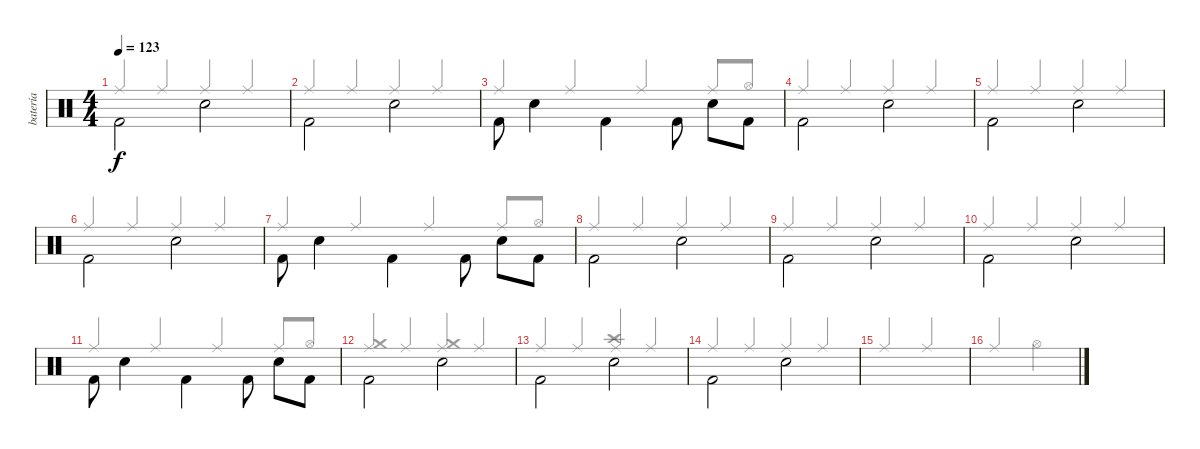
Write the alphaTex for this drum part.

\track ("batería" "batería") {instrument percussion}
\staff {score}
\articulation defaults
\voice
\ts (4 4)
\tempo 123
\clef neutral
\ks c "Kick (hit) 2".2{dy f beam Down} "Snare (hit) 2".2{beam Down}
|
"Kick (hit) 2".2{beam Down} "Snare (hit) 2".2{beam Down} |
"Kick (hit) 2".8{beam Down} "Snare (hit) 2".4{beam Down} "Kick (hit) 2".4{beam Down} "Kick (hit) 2".8{beam Down} "Snare (hit) 2".8{beam Down} "Kick (hit) 2".8{beam Down} |
"Kick (hit) 2".2{beam Down} "Snare (hit) 2".2{beam Down} |
"Kick (hit) 2".2{beam Down} "Snare (hit) 2".2{beam Down} |
"Kick (hit) 2".2{beam Down} "Snare (hit) 2".2{beam Down} |
"Kick (hit) 2".8{beam Down} "Snare (hit) 2".4{beam Down} "Kick (hit) 2".4{beam Down} "Kick (hit) 2".8{beam Down} "Snare (hit) 2".8{beam Down} "Kick (hit) 2".8{beam Down} |
"Kick (hit) 2".2{beam Down} "Snare (hit) 2".2{beam Down} |
"Kick (hit) 2".2{beam Down} "Snare (hit) 2".2{beam Down} |
"Kick (hit) 2".2{beam Down} "Snare (hit) 2".2{beam Down} |
"Kick (hit) 2".8{beam Down} "Snare (hit) 2".4{beam Down} "Kick (hit) 2".4{beam Down} "Kick (hit) 2".8{beam Down} "Snare (hit) 2".8{beam Down} "Kick (hit) 2".8{beam Down} |
"Kick (hit) 2".2{beam Down} "Snare (hit) 2".2{beam Down} |
"Kick (hit) 2".2{beam Down} "Snare (hit) 2".2{beam Down} |
"Kick (hit) 2".2{beam Down} "Snare (hit) 2".2{beam Down} |
|
\voice
\clef neutral
\ottava regular
\simile none
\ks c "Ride (middle)".4{dy f beam Up} "Ride (middle)".4{beam Up} "Ride (middle)".4{beam Up} "Ride (middle)".4{beam Up}
|
"Ride (middle)".4{beam Up} "Ride (middle)".4{beam Up} "Ride (middle)".4{beam Up} "Ride (middle)".4{beam Up} |
"Ride (middle)".4{beam Up} "Ride (middle)".4{beam Up} "Ride (middle)".4{beam Up} "Ride (middle)".8{beam Up} "Hi-Hat (open)".8{beam Up} |
"Ride (middle)".4{beam Up} "Ride (middle)".4{beam Up} "Ride (middle)".4{beam Up} "Ride (middle)".4{beam Up} |
"Ride (middle)".4{beam Up} "Ride (middle)".4{beam Up} "Ride (middle)".4{beam Up} "Ride (middle)".4{beam Up} |
"Ride (middle)".4{beam Up} "Ride (middle)".4{beam Up} "Ride (middle)".4{beam Up} "Ride (middle)".4{beam Up} |
"Ride (middle)".4{beam Up} "Ride (middle)".4{beam Up} "Ride (middle)".4{beam Up} "Ride (middle)".8{beam Up} "Hi-Hat (open)".8{beam Up} |
"Ride (middle)".4{beam Up} "Ride (middle)".4{beam Up} "Ride (middle)".4{beam Up} "Ride (middle)".4{beam Up} |
"Ride (middle)".4{beam Up} "Ride (middle)".4{beam Up} "Ride (middle)".4{beam Up} "Ride (middle)".4{beam Up} |
"Ride (middle)".4{beam Up} "Ride (middle)".4{beam Up} "Ride (middle)".4{beam Up} "Ride (middle)".4{beam Up} |
"Ride (middle)".4{beam Up} "Ride (middle)".4{beam Up} "Ride (middle)".4{beam Up} "Ride (middle)".8{beam Up} "Hi-Hat (open)".8{beam Up} |
("Ride (middle)" "Crash medium (hit)").4{beam Up} "Ride (middle)".4{beam Up} ("Ride (middle)" "Crash medium (hit)").4{beam Up} "Ride (middle)".4{beam Up} |
"Ride (middle)".4{beam Up} "Ride (middle)".4{beam Up} ("Ride (middle)" "Crash high (hit)").4{beam Up} "Ride (middle)".4{beam Up} |
"Ride (middle)".4{beam Up} "Ride (middle)".4{beam Up} "Ride (middle)".4{beam Up} "Ride (middle)".4{beam Up} |
"Ride (middle)".2{beam Up} "Ride (middle)".2{beam Up} |
"Ride (middle)".2{beam Up} "Hi-Hat (open)".2
